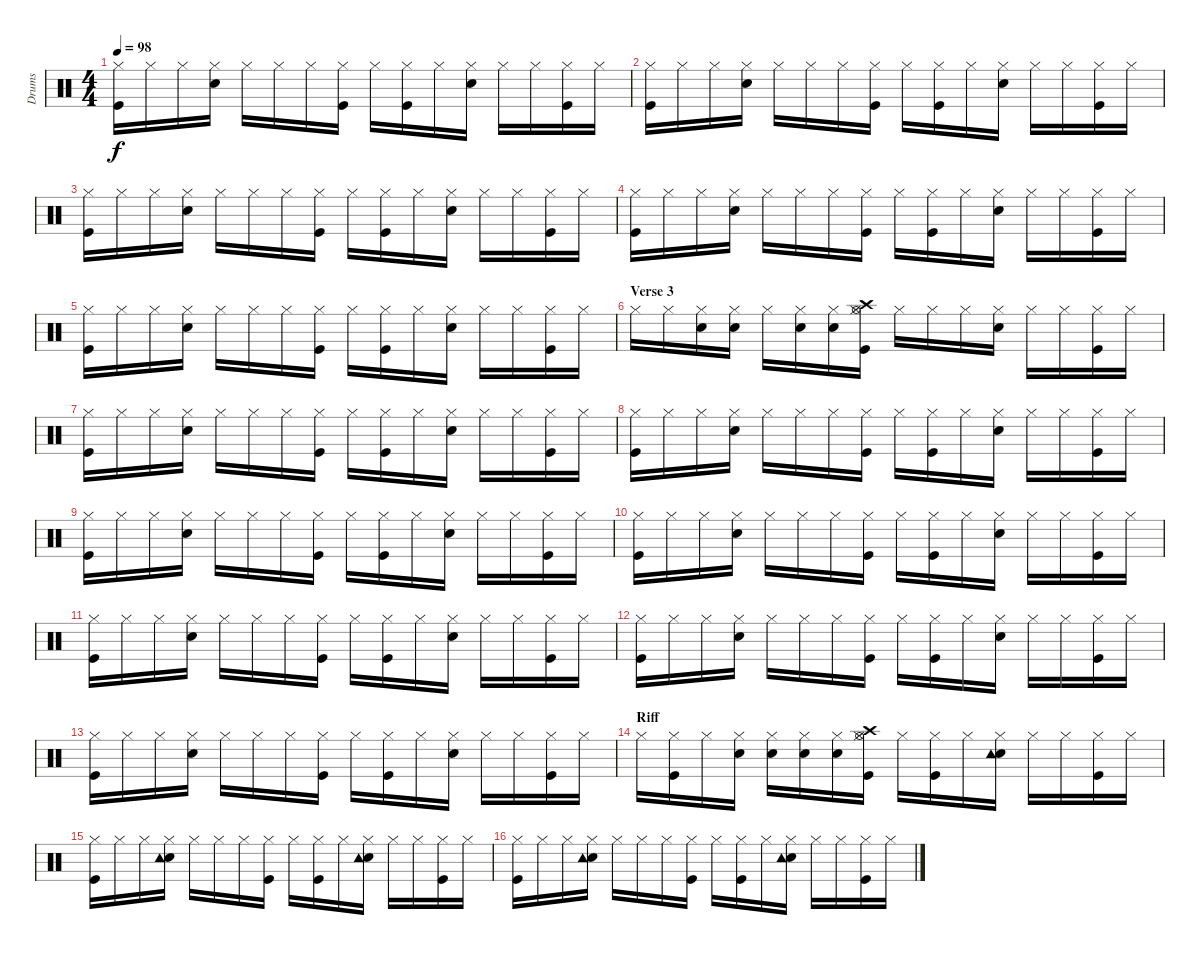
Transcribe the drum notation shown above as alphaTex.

\track ("Drums" "Drums") {instrument percussion}
\staff {score}
\articulation defaults
\ts (4 4)
\tempo 98
\clef neutral
\ks c
("Kick (hit)" "Hi-Hat (closed)").16{dy f} "Hi-Hat (closed)".16 "Hi-Hat (closed)".16 ("Electric Snare (hit)" "Hi-Hat (closed)").16 "Hi-Hat (closed)".16 "Hi-Hat (closed)".16 "Hi-Hat (closed)".16 ("Kick (hit)" "Hi-Hat (closed)").16 "Hi-Hat (closed)".16 ("Kick (hit)" "Hi-Hat (closed)").16 "Hi-Hat (closed)".16 ("Electric Snare (hit)" "Hi-Hat (closed)").16 "Hi-Hat (closed)".16 "Hi-Hat (closed)".16 ("Kick (hit)" "Hi-Hat (closed)").16 "Hi-Hat (closed)".16 |
("Kick (hit)" "Hi-Hat (closed)").16 "Hi-Hat (closed)".16 "Hi-Hat (closed)".16 ("Electric Snare (hit)" "Hi-Hat (closed)").16 "Hi-Hat (closed)".16 "Hi-Hat (closed)".16 "Hi-Hat (closed)".16 ("Kick (hit)" "Hi-Hat (closed)").16 "Hi-Hat (closed)".16 ("Kick (hit)" "Hi-Hat (closed)").16 "Hi-Hat (closed)".16 ("Electric Snare (hit)" "Hi-Hat (closed)").16 "Hi-Hat (closed)".16 "Hi-Hat (closed)".16 ("Kick (hit)" "Hi-Hat (closed)").16 "Hi-Hat (closed)".16 |
("Kick (hit)" "Hi-Hat (closed)").16 "Hi-Hat (closed)".16 "Hi-Hat (closed)".16 ("Electric Snare (hit)" "Hi-Hat (closed)").16 "Hi-Hat (closed)".16 "Hi-Hat (closed)".16 "Hi-Hat (closed)".16 ("Kick (hit)" "Hi-Hat (closed)").16 "Hi-Hat (closed)".16 ("Kick (hit)" "Hi-Hat (closed)").16 "Hi-Hat (closed)".16 ("Electric Snare (hit)" "Hi-Hat (closed)").16 "Hi-Hat (closed)".16 "Hi-Hat (closed)".16 ("Kick (hit)" "Hi-Hat (closed)").16 "Hi-Hat (closed)".16 |
("Kick (hit)" "Hi-Hat (closed)").16 "Hi-Hat (closed)".16 "Hi-Hat (closed)".16 ("Electric Snare (hit)" "Hi-Hat (closed)").16 "Hi-Hat (closed)".16 "Hi-Hat (closed)".16 "Hi-Hat (closed)".16 ("Kick (hit)" "Hi-Hat (closed)").16 "Hi-Hat (closed)".16 ("Kick (hit)" "Hi-Hat (closed)").16 "Hi-Hat (closed)".16 ("Electric Snare (hit)" "Hi-Hat (closed)").16 "Hi-Hat (closed)".16 "Hi-Hat (closed)".16 ("Kick (hit)" "Hi-Hat (closed)").16 "Hi-Hat (closed)".16 |
("Kick (hit)" "Hi-Hat (closed)").16 "Hi-Hat (closed)".16 "Hi-Hat (closed)".16 ("Electric Snare (hit)" "Hi-Hat (closed)").16 "Hi-Hat (closed)".16 "Hi-Hat (closed)".16 "Hi-Hat (closed)".16 ("Kick (hit)" "Hi-Hat (closed)").16 "Hi-Hat (closed)".16 ("Kick (hit)" "Hi-Hat (closed)").16 "Hi-Hat (closed)".16 ("Electric Snare (hit)" "Hi-Hat (closed)").16 "Hi-Hat (closed)".16 "Hi-Hat (closed)".16 ("Kick (hit)" "Hi-Hat (closed)").16 "Hi-Hat (closed)".16 |
\section ("" "Verse 3")
"Hi-Hat (closed)".16 "Hi-Hat (closed)".16 ("Electric Snare (hit)" "Hi-Hat (closed)").16 ("Electric Snare (hit)" "Hi-Hat (closed)").16 "Hi-Hat (closed)".16 ("Electric Snare (hit)" "Hi-Hat (closed)").16 ("Electric Snare (hit)" "Hi-Hat (closed)").16 ("Kick (hit)" "Hi-Hat (open)" "Crash high (hit)" "Hi-Hat (closed)").16 "Hi-Hat (closed)".16 "Hi-Hat (closed)".16 "Hi-Hat (closed)".16 ("Electric Snare (hit)" "Hi-Hat (closed)").16 "Hi-Hat (closed)".16 "Hi-Hat (closed)".16 ("Kick (hit)" "Hi-Hat (closed)").16 "Hi-Hat (closed)".16 |
("Kick (hit)" "Hi-Hat (closed)").16 "Hi-Hat (closed)".16 "Hi-Hat (closed)".16 ("Electric Snare (hit)" "Hi-Hat (closed)").16 "Hi-Hat (closed)".16 "Hi-Hat (closed)".16 "Hi-Hat (closed)".16 ("Kick (hit)" "Hi-Hat (closed)").16 "Hi-Hat (closed)".16 ("Kick (hit)" "Hi-Hat (closed)").16 "Hi-Hat (closed)".16 ("Electric Snare (hit)" "Hi-Hat (closed)").16 "Hi-Hat (closed)".16 "Hi-Hat (closed)".16 ("Kick (hit)" "Hi-Hat (closed)").16 "Hi-Hat (closed)".16 |
("Kick (hit)" "Hi-Hat (closed)").16 "Hi-Hat (closed)".16 "Hi-Hat (closed)".16 ("Electric Snare (hit)" "Hi-Hat (closed)").16 "Hi-Hat (closed)".16 "Hi-Hat (closed)".16 "Hi-Hat (closed)".16 ("Kick (hit)" "Hi-Hat (closed)").16 "Hi-Hat (closed)".16 ("Kick (hit)" "Hi-Hat (closed)").16 "Hi-Hat (closed)".16 ("Electric Snare (hit)" "Hi-Hat (closed)").16 "Hi-Hat (closed)".16 "Hi-Hat (closed)".16 ("Kick (hit)" "Hi-Hat (closed)").16 "Hi-Hat (closed)".16 |
("Kick (hit)" "Hi-Hat (closed)").16 "Hi-Hat (closed)".16 "Hi-Hat (closed)".16 ("Electric Snare (hit)" "Hi-Hat (closed)").16 "Hi-Hat (closed)".16 "Hi-Hat (closed)".16 "Hi-Hat (closed)".16 ("Kick (hit)" "Hi-Hat (closed)").16 "Hi-Hat (closed)".16 ("Kick (hit)" "Hi-Hat (closed)").16 "Hi-Hat (closed)".16 ("Electric Snare (hit)" "Hi-Hat (closed)").16 "Hi-Hat (closed)".16 "Hi-Hat (closed)".16 ("Kick (hit)" "Hi-Hat (closed)").16 "Hi-Hat (closed)".16 |
("Kick (hit)" "Hi-Hat (closed)").16 "Hi-Hat (closed)".16 "Hi-Hat (closed)".16 ("Electric Snare (hit)" "Hi-Hat (closed)").16 "Hi-Hat (closed)".16 "Hi-Hat (closed)".16 "Hi-Hat (closed)".16 ("Kick (hit)" "Hi-Hat (closed)").16 "Hi-Hat (closed)".16 ("Kick (hit)" "Hi-Hat (closed)").16 "Hi-Hat (closed)".16 ("Electric Snare (hit)" "Hi-Hat (closed)").16 "Hi-Hat (closed)".16 "Hi-Hat (closed)".16 ("Kick (hit)" "Hi-Hat (closed)").16 "Hi-Hat (closed)".16 |
("Kick (hit)" "Hi-Hat (closed)").16 "Hi-Hat (closed)".16 "Hi-Hat (closed)".16 ("Electric Snare (hit)" "Hi-Hat (closed)").16 "Hi-Hat (closed)".16 "Hi-Hat (closed)".16 "Hi-Hat (closed)".16 ("Kick (hit)" "Hi-Hat (closed)").16 "Hi-Hat (closed)".16 ("Kick (hit)" "Hi-Hat (closed)").16 "Hi-Hat (closed)".16 ("Electric Snare (hit)" "Hi-Hat (closed)").16 "Hi-Hat (closed)".16 "Hi-Hat (closed)".16 ("Kick (hit)" "Hi-Hat (closed)").16 "Hi-Hat (closed)".16 |
("Kick (hit)" "Hi-Hat (closed)").16 "Hi-Hat (closed)".16 "Hi-Hat (closed)".16 ("Electric Snare (hit)" "Hi-Hat (closed)").16 "Hi-Hat (closed)".16 "Hi-Hat (closed)".16 "Hi-Hat (closed)".16 ("Kick (hit)" "Hi-Hat (closed)").16 "Hi-Hat (closed)".16 ("Kick (hit)" "Hi-Hat (closed)").16 "Hi-Hat (closed)".16 ("Electric Snare (hit)" "Hi-Hat (closed)").16 "Hi-Hat (closed)".16 "Hi-Hat (closed)".16 ("Kick (hit)" "Hi-Hat (closed)").16 "Hi-Hat (closed)".16 |
("Kick (hit)" "Hi-Hat (closed)").16 "Hi-Hat (closed)".16 "Hi-Hat (closed)".16 ("Electric Snare (hit)" "Hi-Hat (closed)").16 "Hi-Hat (closed)".16 "Hi-Hat (closed)".16 "Hi-Hat (closed)".16 ("Kick (hit)" "Hi-Hat (closed)").16 "Hi-Hat (closed)".16 ("Kick (hit)" "Hi-Hat (closed)").16 "Hi-Hat (closed)".16 ("Electric Snare (hit)" "Hi-Hat (closed)").16 "Hi-Hat (closed)".16 "Hi-Hat (closed)".16 ("Kick (hit)" "Hi-Hat (closed)").16 "Hi-Hat (closed)".16 |
\section ("" "Riff")
"Hi-Hat (closed)".16 ("Kick (hit)" "Hi-Hat (closed)").16 "Hi-Hat (closed)".16 ("Electric Snare (hit)" "Hi-Hat (closed)").16 ("Electric Snare (hit)" "Hi-Hat (closed)").16 ("Electric Snare (hit)" "Hi-Hat (closed)").16 ("Electric Snare (hit)" "Hi-Hat (closed)").16 ("Kick (hit)" "Hi-Hat (open)" "Crash high (hit)" "Hi-Hat (closed)").16 "Hi-Hat (closed)".16 ("Kick (hit)" "Hi-Hat (closed)").16 "Hi-Hat (closed)".16 ("Electric Snare (hit)" "Tambourine (hit)" "Hi-Hat (closed)").16 "Hi-Hat (closed)".16 "Hi-Hat (closed)".16 ("Kick (hit)" "Hi-Hat (closed)").16 "Hi-Hat (closed)".16 |
("Kick (hit)" "Hi-Hat (closed)").16 "Hi-Hat (closed)".16 "Hi-Hat (closed)".16 ("Electric Snare (hit)" "Tambourine (hit)" "Hi-Hat (closed)").16 "Hi-Hat (closed)".16 "Hi-Hat (closed)".16 "Hi-Hat (closed)".16 ("Kick (hit)" "Hi-Hat (closed)").16 "Hi-Hat (closed)".16 ("Kick (hit)" "Hi-Hat (closed)").16 "Hi-Hat (closed)".16 ("Electric Snare (hit)" "Tambourine (hit)" "Hi-Hat (closed)").16 "Hi-Hat (closed)".16 "Hi-Hat (closed)".16 ("Kick (hit)" "Hi-Hat (closed)").16 "Hi-Hat (closed)".16 |
("Kick (hit)" "Hi-Hat (closed)").16 "Hi-Hat (closed)".16 "Hi-Hat (closed)".16 ("Electric Snare (hit)" "Tambourine (hit)" "Hi-Hat (closed)").16 "Hi-Hat (closed)".16 "Hi-Hat (closed)".16 "Hi-Hat (closed)".16 ("Kick (hit)" "Hi-Hat (closed)").16 "Hi-Hat (closed)".16 ("Kick (hit)" "Hi-Hat (closed)").16 "Hi-Hat (closed)".16 ("Electric Snare (hit)" "Tambourine (hit)" "Hi-Hat (closed)").16 "Hi-Hat (closed)".16 "Hi-Hat (closed)".16 ("Kick (hit)" "Hi-Hat (closed)").16 "Hi-Hat (closed)".16
